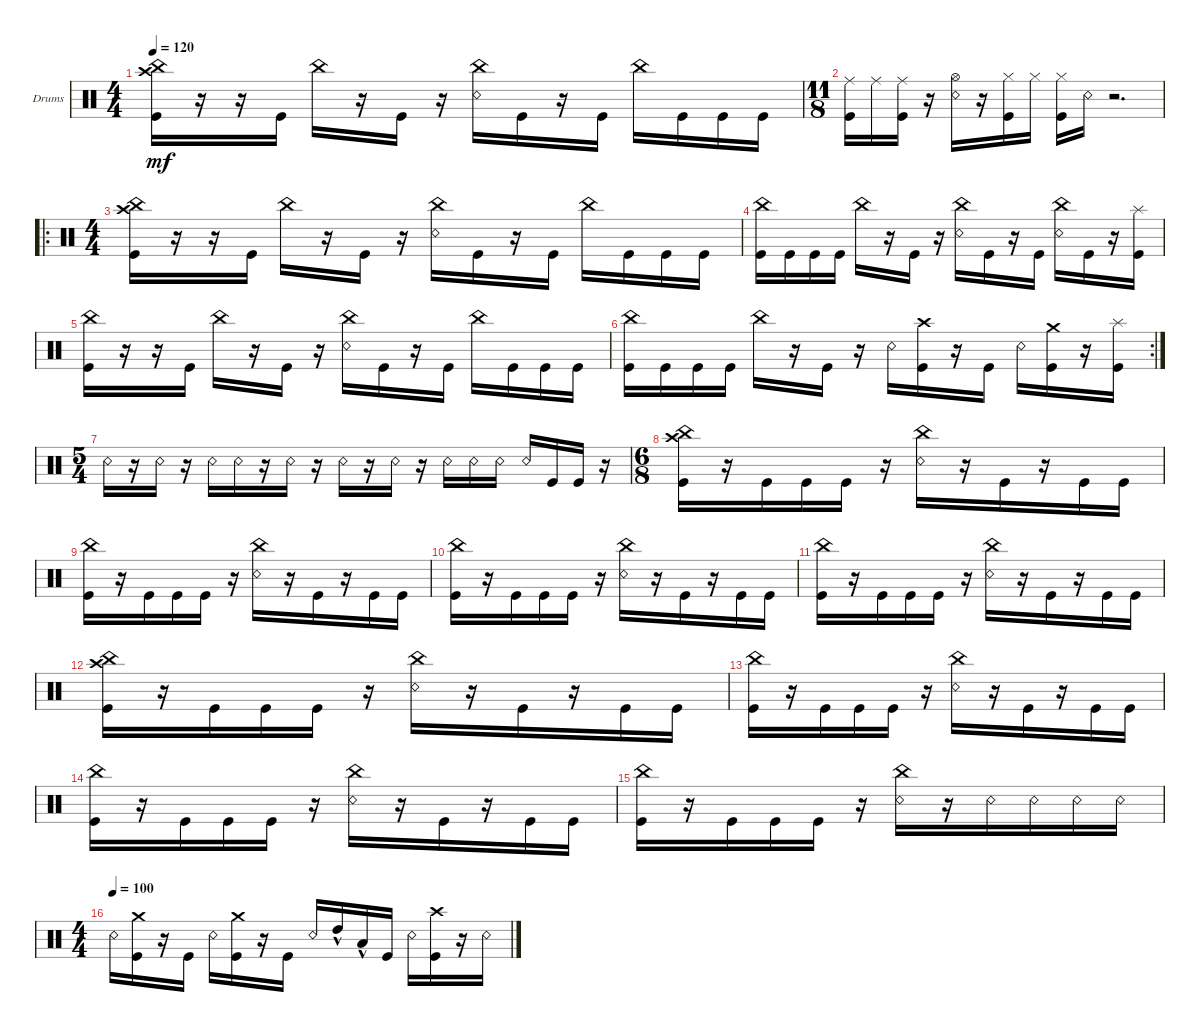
\defaultSystemsLayout 4
\bracketExtendMode groupsimilarinstruments
\firstSystemTrackNameOrientation horizontal
\otherSystemsTrackNameOrientation horizontal
\track ("Drumkit" "Drums") {instrument percussion}
\staff {score}
\articulation defaults
\ts (4 4)
\tempo 120
\clef neutral
\ks c
("Kick (hit)" "China (hit)" "Crash high (hit)").16{dy mf} r.16 r.16 "Kick (hit)".16 "China (hit)".16 r.16 "Kick (hit)".16 r.16 ("China (hit)" "Snare (rim shot)").16 "Kick (hit)".16 r.16 "Kick (hit)".16 "China (hit)".16 "Kick (hit)".16 "Kick (hit)".16 "Kick (hit)".16 |
\ts (11 8)
("Kick (hit)" "Ride (middle)").16 "Ride (middle)".16 ("Kick (hit)" "Ride (middle)").16 r.16 ("Snare (rim shot)" "Hi-Hat (open)").16 r.16 ("Kick (hit)" "Hi-Hat (closed)").16 "Hi-Hat (closed)".16 ("Hi-Hat (closed)" "Kick (hit)").16 "Snare (rim shot)".16 r.2{d} |
\ro
\ts (4 4)
("Kick (hit)" "China (hit)" "Crash high (hit)").16 r.16 r.16 "Kick (hit)".16 "China (hit)".16 r.16 "Kick (hit)".16 r.16 ("Snare (rim shot)" "China (hit)").16 "Kick (hit)".16 r.16 "Kick (hit)".16 "China (hit)".16 "Kick (hit)".16 "Kick (hit)".16 "Kick (hit)".16 |
("Kick (hit)" "China (hit)").16 "Kick (hit)".16 "Kick (hit)".16 "Kick (hit)".16 "China (hit)".16 r.16 "Kick (hit)".16 r.16 ("Snare (rim shot)" "China (hit)").16 "Kick (hit)".16 r.16 "Kick (hit)".16 ("Snare (rim shot)" "China (hit)").16 "Kick (hit)".16 r.16 ("Kick (hit)" "Splash (hit)").16 |
("Kick (hit)" "China (hit)").16 r.16 r.16 "Kick (hit)".16 "China (hit)".16 r.16 "Kick (hit)".16 r.16 ("Snare (rim shot)" "China (hit)").16 "Kick (hit)".16 r.16 "Kick (hit)".16 "China (hit)".16 "Kick (hit)".16 "Kick (hit)".16 "Kick (hit)".16 |
\rc 2
("Kick (hit)" "China (hit)").16 "Kick (hit)".16 "Kick (hit)".16 "Kick (hit)".16 "China (hit)".16 r.16 "Kick (hit)".16 r.16 "Snare (rim shot)".16 ("Kick (hit)" "Crash high (hit)").16 r.16 "Kick (hit)".16 "Snare (rim shot)".16 ("Kick (hit)" "Crash medium (hit)").16 r.16 ("Kick (hit)" "Splash (hit)").16 |
\ts (5 4)
"Snare (rim shot)".16 r.16 "Snare (rim shot)".16 r.16 "Snare (rim shot)".16 "Snare (rim shot)".16 r.16 "Snare (rim shot)".16 r.16 "Snare (rim shot)".16 r.16 "Snare (rim shot)".16 r.16 "Snare (rim shot)".16 "Snare (rim shot)".16 "Snare (rim shot)".16 "Snare (rim shot)".16 "Kick (hit)".16 "Kick (hit)".16 r.16 |
\ts (6 8)
("Kick (hit)" "China (hit)" "Crash high (hit)").16 r.16 "Kick (hit)".16 "Kick (hit)".16 "Kick (hit)".16 r.16 ("Snare (rim shot)" "China (hit)").16 r.16 "Kick (hit)".16 r.16 "Kick (hit)".16 "Kick (hit)".16 |
("Kick (hit)" "China (hit)").16 r.16 "Kick (hit)".16 "Kick (hit)".16 "Kick (hit)".16 r.16 ("Snare (rim shot)" "China (hit)").16 r.16 "Kick (hit)".16 r.16 "Kick (hit)".16 "Kick (hit)".16 |
("Kick (hit)" "China (hit)").16 r.16 "Kick (hit)".16 "Kick (hit)".16 "Kick (hit)".16 r.16 ("Snare (rim shot)" "China (hit)").16 r.16 "Kick (hit)".16 r.16 "Kick (hit)".16 "Kick (hit)".16 |
("Kick (hit)" "China (hit)").16 r.16 "Kick (hit)".16 "Kick (hit)".16 "Kick (hit)".16 r.16 ("Snare (rim shot)" "China (hit)").16 r.16 "Kick (hit)".16 r.16 "Kick (hit)".16 "Kick (hit)".16 |
("Kick (hit)" "China (hit)" "Crash high (hit)").16 r.16 "Kick (hit)".16 "Kick (hit)".16 "Kick (hit)".16 r.16 ("Snare (rim shot)" "China (hit)").16 r.16 "Kick (hit)".16 r.16 "Kick (hit)".16 "Kick (hit)".16 |
("Kick (hit)" "China (hit)").16 r.16 "Kick (hit)".16 "Kick (hit)".16 "Kick (hit)".16 r.16 ("Snare (rim shot)" "China (hit)").16 r.16 "Kick (hit)".16 r.16 "Kick (hit)".16 "Kick (hit)".16 |
("Kick (hit)" "China (hit)").16 r.16 "Kick (hit)".16 "Kick (hit)".16 "Kick (hit)".16 r.16 ("Snare (rim shot)" "China (hit)").16 r.16 "Kick (hit)".16 r.16 "Kick (hit)".16 "Kick (hit)".16 |
("Kick (hit)" "China (hit)").16 r.16 "Kick (hit)".16 "Kick (hit)".16 "Kick (hit)".16 r.16 ("Snare (rim shot)" "China (hit)").16 r.16 "Snare (rim shot)".16 "Snare (rim shot)".16 "Snare (rim shot)".16 "Snare (rim shot)".16 |
\ts (4 4)
\tempo (100)
"Snare (rim shot)".16 ("Kick (hit)" "Crash medium (hit)").16 r.16 "Kick (hit)".16 "Snare (rim shot)".16 ("Kick (hit)" "Crash medium (hit)").16 r.16 "Kick (hit)".16 "Snare (rim shot)".16 "High Tom (hit)"{hac}.16 "Low Tom (hit)"{hac}.16 "Kick (hit)".16 "Snare (rim shot)".16 ("Kick (hit)" "Crash high (hit)").16 r.16 "Snare (rim shot)".16
